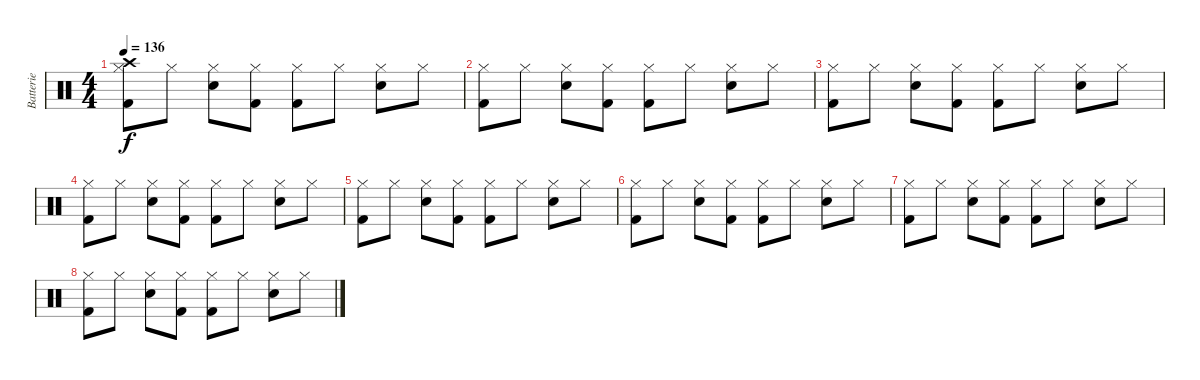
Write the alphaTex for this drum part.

\track ("Batterie" "Batterie") {instrument percussion}
\staff {score}
\articulation defaults
\ts (4 4)
\tempo 136
\clef neutral
\ks c
("Crash high (hit)" "Hi-Hat (closed)" "Kick (hit) 2").8{dy f} "Hi-Hat (closed)".8 ("Hi-Hat (closed)" "Electric Snare (hit)").8 ("Hi-Hat (closed)" "Kick (hit) 2").8 ("Hi-Hat (closed)" "Kick (hit) 2").8 "Hi-Hat (closed)".8 ("Hi-Hat (closed)" "Electric Snare (hit)").8 "Hi-Hat (closed)".8 |
("Hi-Hat (closed)" "Kick (hit) 2").8 "Hi-Hat (closed)".8 ("Hi-Hat (closed)" "Electric Snare (hit)").8 ("Hi-Hat (closed)" "Kick (hit) 2").8 ("Hi-Hat (closed)" "Kick (hit) 2").8 "Hi-Hat (closed)".8 ("Hi-Hat (closed)" "Electric Snare (hit)").8 "Hi-Hat (closed)".8 |
("Hi-Hat (closed)" "Kick (hit) 2").8 "Hi-Hat (closed)".8 ("Hi-Hat (closed)" "Electric Snare (hit)").8 ("Hi-Hat (closed)" "Kick (hit) 2").8 ("Hi-Hat (closed)" "Kick (hit) 2").8 "Hi-Hat (closed)".8 ("Hi-Hat (closed)" "Electric Snare (hit)").8 "Hi-Hat (closed)".8 |
("Hi-Hat (closed)" "Kick (hit) 2").8 "Hi-Hat (closed)".8 ("Hi-Hat (closed)" "Electric Snare (hit)").8 ("Hi-Hat (closed)" "Kick (hit) 2").8 ("Hi-Hat (closed)" "Kick (hit) 2").8 "Hi-Hat (closed)".8 ("Hi-Hat (closed)" "Electric Snare (hit)").8 "Hi-Hat (closed)".8 |
("Hi-Hat (closed)" "Kick (hit) 2").8 "Hi-Hat (closed)".8 ("Hi-Hat (closed)" "Electric Snare (hit)").8 ("Hi-Hat (closed)" "Kick (hit) 2").8 ("Hi-Hat (closed)" "Kick (hit) 2").8 "Hi-Hat (closed)".8 ("Hi-Hat (closed)" "Electric Snare (hit)").8 "Hi-Hat (closed)".8 |
("Hi-Hat (closed)" "Kick (hit) 2").8 "Hi-Hat (closed)".8 ("Hi-Hat (closed)" "Electric Snare (hit)").8 ("Hi-Hat (closed)" "Kick (hit) 2").8 ("Hi-Hat (closed)" "Kick (hit) 2").8 "Hi-Hat (closed)".8 ("Hi-Hat (closed)" "Electric Snare (hit)").8 "Hi-Hat (closed)".8 |
("Hi-Hat (closed)" "Kick (hit) 2").8 "Hi-Hat (closed)".8 ("Hi-Hat (closed)" "Electric Snare (hit)").8 ("Hi-Hat (closed)" "Kick (hit) 2").8 ("Hi-Hat (closed)" "Kick (hit) 2").8 "Hi-Hat (closed)".8 ("Hi-Hat (closed)" "Electric Snare (hit)").8 "Hi-Hat (closed)".8 |
("Hi-Hat (closed)" "Kick (hit) 2").8 "Hi-Hat (closed)".8 ("Hi-Hat (closed)" "Electric Snare (hit)").8 ("Hi-Hat (closed)" "Kick (hit) 2").8 ("Hi-Hat (closed)" "Kick (hit) 2").8 "Hi-Hat (closed)".8 ("Hi-Hat (closed)" "Electric Snare (hit)").8 "Hi-Hat (closed)".8
